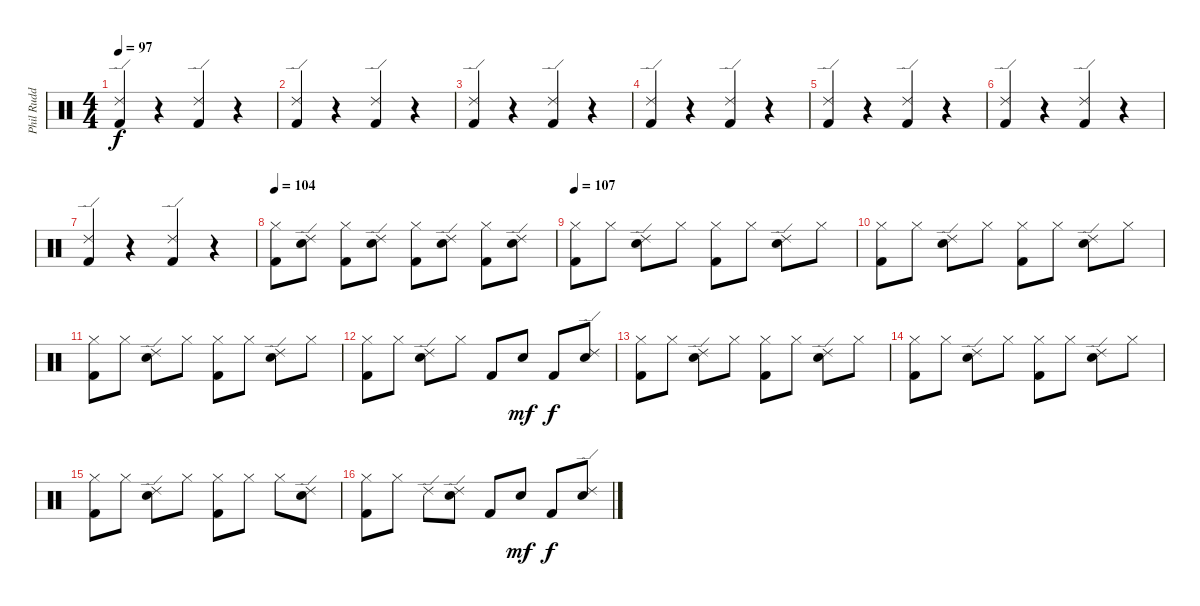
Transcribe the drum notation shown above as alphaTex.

\track ("Phil Rudd" "Phil Rudd") {instrument percussion}
\staff {score}
\articulation defaults
\ts (4 4)
\tempo 97
\clef neutral
\ks c
("Kick (hit) 2" "Ride (edge) 2").4{dy f} r.4 ("Kick (hit) 2" "Ride (edge) 2").4 r.4 |
("Kick (hit) 2" "Ride (edge) 2").4 r.4 ("Kick (hit) 2" "Ride (edge) 2").4 r.4 |
("Kick (hit) 2" "Ride (edge) 2").4 r.4 ("Kick (hit) 2" "Ride (edge) 2").4 r.4 |
("Kick (hit) 2" "Ride (edge) 2").4 r.4 ("Kick (hit) 2" "Ride (edge) 2").4 r.4 |
("Kick (hit) 2" "Ride (edge) 2").4 r.4 ("Kick (hit) 2" "Ride (edge) 2").4 r.4 |
("Kick (hit) 2" "Ride (edge) 2").4 r.4 ("Kick (hit) 2" "Ride (edge) 2").4 r.4 |
("Kick (hit) 2" "Ride (edge) 2").4 r.4 ("Kick (hit) 2" "Ride (edge) 2").4 r.4 |
\tempo 104
("Hi-Hat (closed)" "Kick (hit) 2").8 ("Snare (hit) 2" "Ride (edge) 2").8 ("Hi-Hat (closed)" "Kick (hit) 2").8 ("Snare (hit) 2" "Ride (edge) 2").8 ("Hi-Hat (closed)" "Kick (hit) 2").8 ("Snare (hit) 2" "Ride (edge) 2").8 ("Hi-Hat (closed)" "Kick (hit) 2").8 ("Snare (hit) 2" "Ride (edge) 2").8 |
\tempo 107
("Hi-Hat (closed)" "Kick (hit) 2").8 "Hi-Hat (closed)".8 ("Snare (hit) 2" "Ride (edge) 2").8 "Hi-Hat (closed)".8 ("Hi-Hat (closed)" "Kick (hit) 2").8 "Hi-Hat (closed)".8 ("Snare (hit) 2" "Ride (edge) 2").8 "Hi-Hat (closed)".8 |
("Hi-Hat (closed)" "Kick (hit) 2").8 "Hi-Hat (closed)".8 ("Snare (hit) 2" "Ride (edge) 2").8 "Hi-Hat (closed)".8 ("Hi-Hat (closed)" "Kick (hit) 2").8 "Hi-Hat (closed)".8 ("Snare (hit) 2" "Ride (edge) 2").8 "Hi-Hat (closed)".8 |
("Hi-Hat (closed)" "Kick (hit) 2").8 "Hi-Hat (closed)".8 ("Snare (hit) 2" "Ride (edge) 2").8 "Hi-Hat (closed)".8 ("Hi-Hat (closed)" "Kick (hit) 2").8 "Hi-Hat (closed)".8 ("Snare (hit) 2" "Ride (edge) 2").8 "Hi-Hat (closed)".8 |
("Hi-Hat (closed)" "Kick (hit) 2").8 "Hi-Hat (closed)".8 ("Snare (hit) 2" "Ride (edge) 2").8 "Hi-Hat (closed)".8 "Kick (hit) 2".8 "Snare (hit) 2".8{dy mf} "Kick (hit) 2".8{dy f} ("Ride (edge) 2" "Snare (hit) 2").8 |
("Hi-Hat (closed)" "Kick (hit) 2").8 "Hi-Hat (closed)".8 ("Snare (hit) 2" "Ride (edge) 2").8 "Hi-Hat (closed)".8 ("Hi-Hat (closed)" "Kick (hit) 2").8 "Hi-Hat (closed)".8 ("Snare (hit) 2" "Ride (edge) 2").8 "Hi-Hat (closed)".8 |
("Hi-Hat (closed)" "Kick (hit) 2").8 "Hi-Hat (closed)".8 ("Snare (hit) 2" "Ride (edge) 2").8 "Hi-Hat (closed)".8 ("Hi-Hat (closed)" "Kick (hit) 2").8 "Hi-Hat (closed)".8 ("Snare (hit) 2" "Ride (edge) 2").8 "Hi-Hat (closed)".8 |
("Hi-Hat (closed)" "Kick (hit) 2").8 "Hi-Hat (closed)".8 ("Snare (hit) 2" "Ride (edge) 2").8 "Hi-Hat (closed)".8 ("Hi-Hat (closed)" "Kick (hit) 2").8 "Hi-Hat (closed)".8 "Hi-Hat (closed)".8 ("Ride (edge) 2" "Snare (hit) 2").8 |
("Hi-Hat (closed)" "Kick (hit) 2").8 "Hi-Hat (closed)".8 "Ride (edge) 2".8 ("Ride (edge) 2" "Snare (hit) 2").8 "Kick (hit) 2".8 "Snare (hit) 2".8{dy mf} "Kick (hit) 2".8{dy f} ("Ride (edge) 2" "Snare (hit) 2").8
